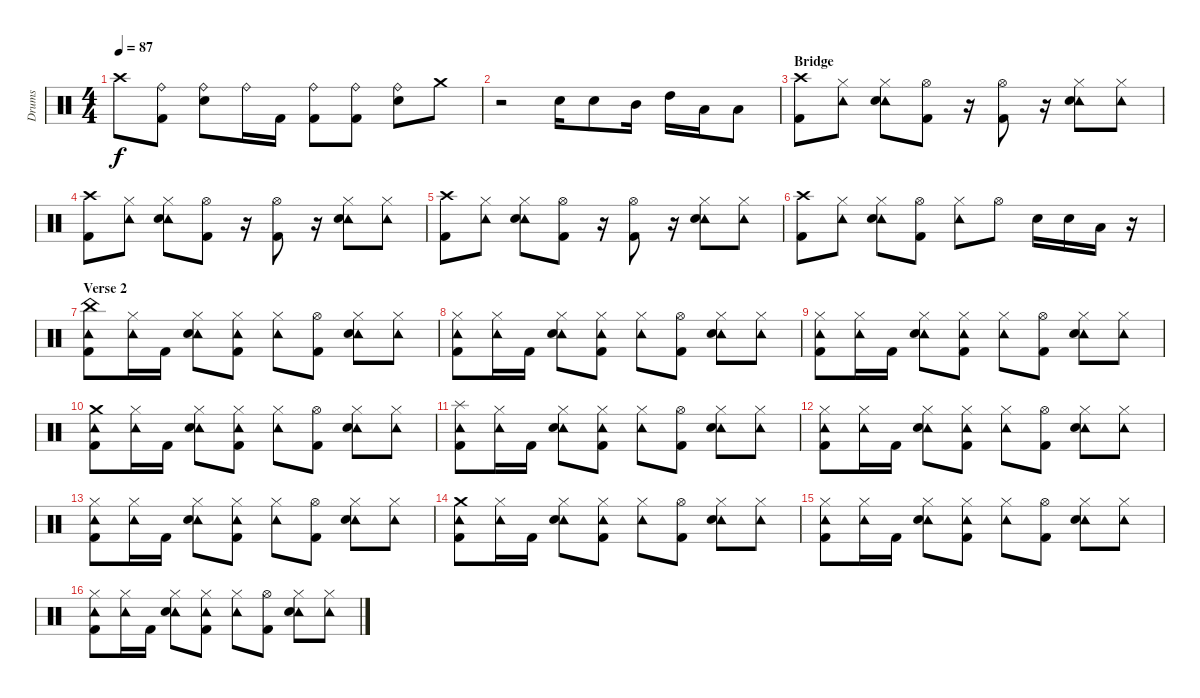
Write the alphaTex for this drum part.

\track ("Drums" "Drums") {instrument percussion}
\staff {score}
\articulation defaults
\ts (4 4)
\tempo 87
\clef neutral
\ks c "Crash high (hit)".8{dy f}
("Ride (bell)" "Kick (hit) 2").8 ("Ride (bell)" "Snare (hit) 2").8 "Ride (bell)".16 "Kick (hit) 2".16 ("Ride (bell)" "Kick (hit) 2").8 ("Ride (bell)" "Kick (hit) 2").8 ("Ride (bell)" "Snare (hit) 2").8 "Crash medium (hit)".8 |
r.2 "Snare (hit) 2".16 "Snare (hit) 2".8 "Mid Tom (hit)".16 "High Tom (hit)".16 "Low Tom (hit)".16 "Low Floor Tom (hit)".8 |
\section ("" "Bridge")
("Crash high (hit)" "Kick (hit) 2").8 ("Tambourine (hit)" "Hi-Hat (closed)").8 ("Tambourine (hit)" "Hi-Hat (closed)" "Snare (hit) 2").8 ("Hi-Hat (open)" "Kick (hit) 2").8 r.16 ("Hi-Hat (open)" "Kick (hit) 2").8 r.16 ("Tambourine (hit)" "Hi-Hat (closed)" "Snare (hit) 2").8 ("Tambourine (hit)" "Hi-Hat (closed)").8 |
("Crash high (hit)" "Kick (hit) 2").8 ("Tambourine (hit)" "Hi-Hat (closed)").8 ("Tambourine (hit)" "Hi-Hat (closed)" "Snare (hit) 2").8 ("Hi-Hat (open)" "Kick (hit) 2").8 r.16 ("Hi-Hat (open)" "Kick (hit) 2").8 r.16 ("Tambourine (hit)" "Hi-Hat (closed)" "Snare (hit) 2").8 ("Tambourine (hit)" "Hi-Hat (closed)").8 |
("Crash high (hit)" "Kick (hit) 2").8 ("Tambourine (hit)" "Hi-Hat (closed)").8 ("Tambourine (hit)" "Hi-Hat (closed)" "Snare (hit) 2").8 ("Hi-Hat (open)" "Kick (hit) 2").8 r.16 ("Hi-Hat (open)" "Kick (hit) 2").8 r.16 ("Tambourine (hit)" "Hi-Hat (closed)" "Snare (hit) 2").8 ("Tambourine (hit)" "Hi-Hat (closed)").8 |
("Crash high (hit)" "Kick (hit) 2").8 ("Tambourine (hit)" "Hi-Hat (closed)").8 ("Tambourine (hit)" "Hi-Hat (closed)" "Snare (hit) 2").8 ("Hi-Hat (open)" "Kick (hit) 2").8 ("Tambourine (hit)" "Hi-Hat (closed)").8 "Hi-Hat (open)".8 "Snare (hit) 2".16 "Snare (hit) 2".16 "Low Tom (hit)".16 r.16 |
\section ("" "Verse 2")
("Tambourine (hit)" "China (hit)" "Kick (hit) 2").8 ("Tambourine (hit)" "Hi-Hat (closed)").16 "Kick (hit) 2".16 ("Tambourine (hit)" "Hi-Hat (closed)" "Snare (hit) 2").8 ("Tambourine (hit)" "Hi-Hat (closed)" "Kick (hit) 2").8 ("Tambourine (hit)" "Hi-Hat (closed)").8 ("Hi-Hat (open)" "Kick (hit) 2").8 ("Tambourine (hit)" "Hi-Hat (closed)" "Snare (hit) 2").8 ("Tambourine (hit)" "Hi-Hat (closed)").8 |
("Tambourine (hit)" "Hi-Hat (closed)" "Kick (hit) 2").8 ("Tambourine (hit)" "Hi-Hat (closed)").16 "Kick (hit) 2".16 ("Tambourine (hit)" "Hi-Hat (closed)" "Snare (hit) 2").8 ("Tambourine (hit)" "Hi-Hat (closed)" "Kick (hit) 2").8 ("Tambourine (hit)" "Hi-Hat (closed)").8 ("Hi-Hat (open)" "Kick (hit) 2").8 ("Tambourine (hit)" "Hi-Hat (closed)" "Snare (hit) 2").8 ("Tambourine (hit)" "Hi-Hat (closed)").8 |
("Tambourine (hit)" "Hi-Hat (closed)" "Kick (hit) 2").8 ("Tambourine (hit)" "Hi-Hat (closed)").16 "Kick (hit) 2".16 ("Tambourine (hit)" "Hi-Hat (closed)" "Snare (hit) 2").8 ("Tambourine (hit)" "Hi-Hat (closed)" "Kick (hit) 2").8 ("Tambourine (hit)" "Hi-Hat (closed)").8 ("Hi-Hat (open)" "Kick (hit) 2").8 ("Tambourine (hit)" "Hi-Hat (closed)" "Snare (hit) 2").8 ("Tambourine (hit)" "Hi-Hat (closed)").8 |
("Tambourine (hit)" "Crash medium (hit)" "Kick (hit) 2").8 ("Tambourine (hit)" "Hi-Hat (closed)").16 "Kick (hit) 2".16 ("Tambourine (hit)" "Hi-Hat (closed)" "Snare (hit) 2").8 ("Tambourine (hit)" "Hi-Hat (closed)" "Kick (hit) 2").8 ("Tambourine (hit)" "Hi-Hat (closed)").8 ("Hi-Hat (open)" "Kick (hit) 2").8 ("Tambourine (hit)" "Hi-Hat (closed)" "Snare (hit) 2").8 ("Tambourine (hit)" "Hi-Hat (closed)").8 |
("Tambourine (hit)" "Splash (hit)" "Kick (hit) 2").8 ("Tambourine (hit)" "Hi-Hat (closed)").16 "Kick (hit) 2".16 ("Tambourine (hit)" "Hi-Hat (closed)" "Snare (hit) 2").8 ("Tambourine (hit)" "Hi-Hat (closed)" "Kick (hit) 2").8 ("Tambourine (hit)" "Hi-Hat (closed)").8 ("Hi-Hat (open)" "Kick (hit) 2").8 ("Tambourine (hit)" "Hi-Hat (closed)" "Snare (hit) 2").8 ("Tambourine (hit)" "Hi-Hat (closed)").8 |
("Tambourine (hit)" "Hi-Hat (closed)" "Kick (hit) 2").8 ("Tambourine (hit)" "Hi-Hat (closed)").16 "Kick (hit) 2".16 ("Tambourine (hit)" "Hi-Hat (closed)" "Snare (hit) 2").8 ("Tambourine (hit)" "Hi-Hat (closed)" "Kick (hit) 2").8 ("Tambourine (hit)" "Hi-Hat (closed)").8 ("Hi-Hat (open)" "Kick (hit) 2").8 ("Tambourine (hit)" "Hi-Hat (closed)" "Snare (hit) 2").8 ("Tambourine (hit)" "Hi-Hat (closed)").8 |
("Tambourine (hit)" "Hi-Hat (closed)" "Kick (hit) 2").8 ("Tambourine (hit)" "Hi-Hat (closed)").16 "Kick (hit) 2".16 ("Tambourine (hit)" "Hi-Hat (closed)" "Snare (hit) 2").8 ("Tambourine (hit)" "Hi-Hat (closed)" "Kick (hit) 2").8 ("Tambourine (hit)" "Hi-Hat (closed)").8 ("Hi-Hat (open)" "Kick (hit) 2").8 ("Tambourine (hit)" "Hi-Hat (closed)" "Snare (hit) 2").8 ("Tambourine (hit)" "Hi-Hat (closed)").8 |
("Tambourine (hit)" "Crash medium (hit)" "Kick (hit) 2").8 ("Tambourine (hit)" "Hi-Hat (closed)").16 "Kick (hit) 2".16 ("Tambourine (hit)" "Hi-Hat (closed)" "Snare (hit) 2").8 ("Tambourine (hit)" "Hi-Hat (closed)" "Kick (hit) 2").8 ("Tambourine (hit)" "Hi-Hat (closed)").8 ("Hi-Hat (open)" "Kick (hit) 2").8 ("Tambourine (hit)" "Hi-Hat (closed)" "Snare (hit) 2").8 ("Tambourine (hit)" "Hi-Hat (closed)").8 |
("Tambourine (hit)" "Hi-Hat (closed)" "Kick (hit) 2").8 ("Tambourine (hit)" "Hi-Hat (closed)").16 "Kick (hit) 2".16 ("Tambourine (hit)" "Hi-Hat (closed)" "Snare (hit) 2").8 ("Tambourine (hit)" "Hi-Hat (closed)" "Kick (hit) 2").8 ("Tambourine (hit)" "Hi-Hat (closed)").8 ("Hi-Hat (open)" "Kick (hit) 2").8 ("Tambourine (hit)" "Hi-Hat (closed)" "Snare (hit) 2").8 ("Tambourine (hit)" "Hi-Hat (closed)").8 |
("Tambourine (hit)" "Hi-Hat (closed)" "Kick (hit) 2").8 ("Tambourine (hit)" "Hi-Hat (closed)").16 "Kick (hit) 2".16 ("Tambourine (hit)" "Hi-Hat (closed)" "Snare (hit) 2").8 ("Tambourine (hit)" "Hi-Hat (closed)" "Kick (hit) 2").8 ("Tambourine (hit)" "Hi-Hat (closed)").8 ("Hi-Hat (open)" "Kick (hit) 2").8 ("Tambourine (hit)" "Hi-Hat (closed)" "Snare (hit) 2").8 ("Tambourine (hit)" "Hi-Hat (closed)").8
